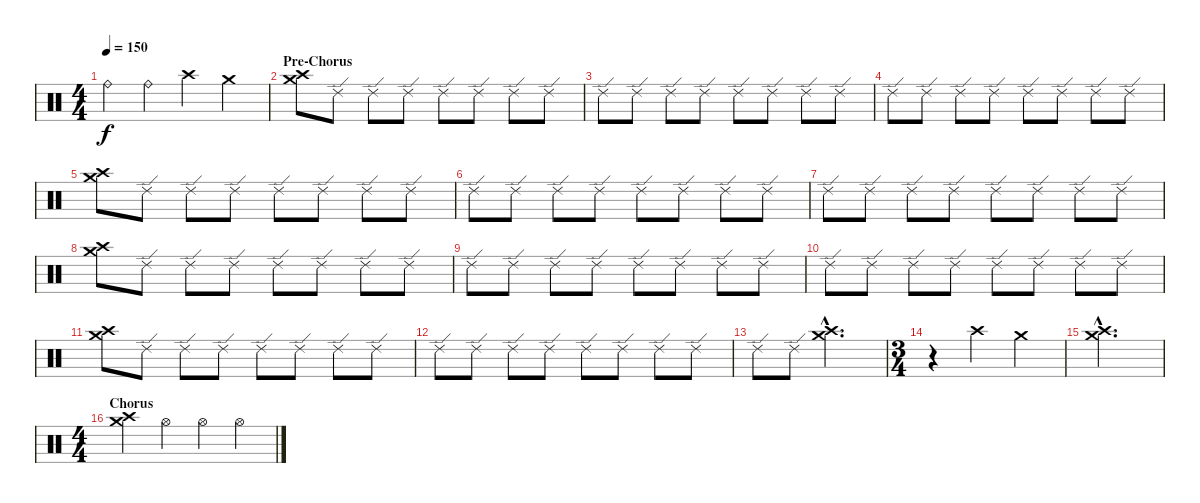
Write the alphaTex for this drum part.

\track "" {instrument percussion}
\staff {score}
\articulation defaults
\ts (4 4)
\tempo 150
\clef neutral
\ks c "Ride (bell)".4{dy f} "Ride (bell)".4 "Crash high (hit)".4 "Crash medium (hit)".4
|
\section ("" "Pre-Chorus")
("Crash medium (hit)" "Crash high (hit)").8 "Ride (edge) 2".8 "Ride (edge) 2".8 "Ride (edge) 2".8 "Ride (edge) 2".8 "Ride (edge) 2".8 "Ride (edge) 2".8 "Ride (edge) 2".8 |
"Ride (edge) 2".8 "Ride (edge) 2".8 "Ride (edge) 2".8 "Ride (edge) 2".8 "Ride (edge) 2".8 "Ride (edge) 2".8 "Ride (edge) 2".8 "Ride (edge) 2".8 |
"Ride (edge) 2".8 "Ride (edge) 2".8 "Ride (edge) 2".8 "Ride (edge) 2".8 "Ride (edge) 2".8 "Ride (edge) 2".8 "Ride (edge) 2".8 "Ride (edge) 2".8 |
("Crash medium (hit)" "Crash high (hit)").8 "Ride (edge) 2".8 "Ride (edge) 2".8 "Ride (edge) 2".8 "Ride (edge) 2".8 "Ride (edge) 2".8 "Ride (edge) 2".8 "Ride (edge) 2".8 |
"Ride (edge) 2".8 "Ride (edge) 2".8 "Ride (edge) 2".8 "Ride (edge) 2".8 "Ride (edge) 2".8 "Ride (edge) 2".8 "Ride (edge) 2".8 "Ride (edge) 2".8 |
"Ride (edge) 2".8 "Ride (edge) 2".8 "Ride (edge) 2".8 "Ride (edge) 2".8 "Ride (edge) 2".8 "Ride (edge) 2".8 "Ride (edge) 2".8 "Ride (edge) 2".8 |
("Crash medium (hit)" "Crash high (hit)").8 "Ride (edge) 2".8 "Ride (edge) 2".8 "Ride (edge) 2".8 "Ride (edge) 2".8 "Ride (edge) 2".8 "Ride (edge) 2".8 "Ride (edge) 2".8 |
"Ride (edge) 2".8 "Ride (edge) 2".8 "Ride (edge) 2".8 "Ride (edge) 2".8 "Ride (edge) 2".8 "Ride (edge) 2".8 "Ride (edge) 2".8 "Ride (edge) 2".8 |
"Ride (edge) 2".8 "Ride (edge) 2".8 "Ride (edge) 2".8 "Ride (edge) 2".8 "Ride (edge) 2".8 "Ride (edge) 2".8 "Ride (edge) 2".8 "Ride (edge) 2".8 |
("Crash medium (hit)" "Crash high (hit)").8 "Ride (edge) 2".8 "Ride (edge) 2".8 "Ride (edge) 2".8 "Ride (edge) 2".8 "Ride (edge) 2".8 "Ride (edge) 2".8 "Ride (edge) 2".8 |
"Ride (edge) 2".8 "Ride (edge) 2".8 "Ride (edge) 2".8 "Ride (edge) 2".8 "Ride (edge) 2".8 "Ride (edge) 2".8 "Ride (edge) 2".8 "Ride (edge) 2".8 |
"Ride (edge) 2".8 "Ride (edge) 2".8 ("Crash medium (hit)"{hac} "Crash high (hit)"{hac}).2{d} |
\ts (3 4)
r.4 "Crash high (hit)".4 "Crash medium (hit)".4 |
("Crash medium (hit)"{hac} "Crash high (hit)"{hac}).2{d} |
\ts (4 4)
\section ("" "Chorus")
("Crash medium (hit)" "Crash high (hit)").4 "Hi-Hat (open)".4 "Hi-Hat (open)".4 "Hi-Hat (open)".4
